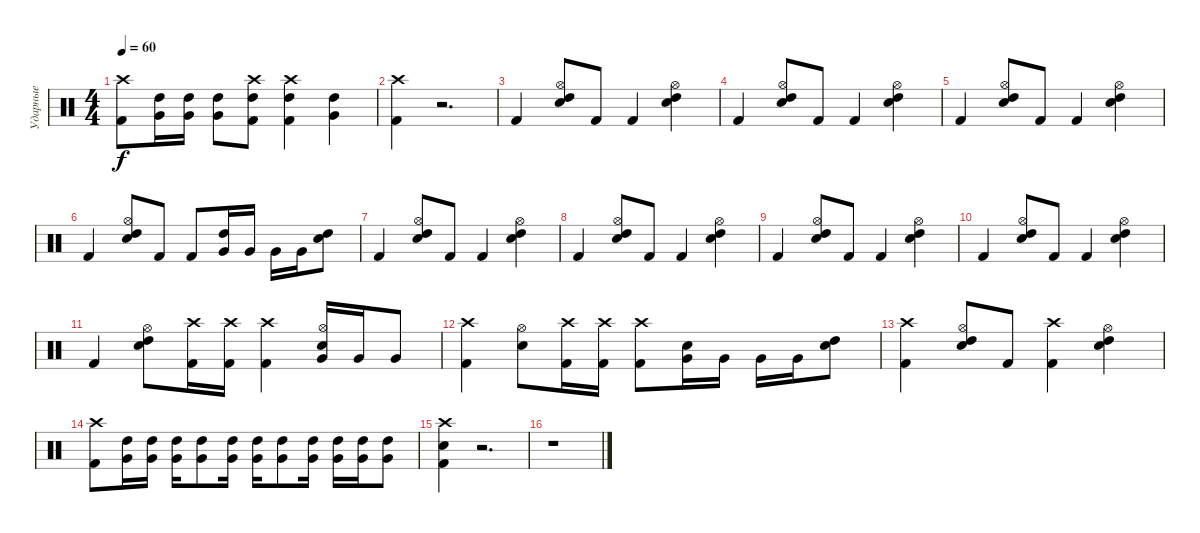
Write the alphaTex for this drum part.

\track ("Ударные" "Ударные") {instrument percussion}
\staff
\articulation defaults
\ts (4 4)
\tempo 60
\clef neutral
\ks c
("Crash high (hit)" "Kick (hit) 2").8{dy f} ("High Tom (hit)" "Very Low Tom (hit)").16 ("High Tom (hit)" "Very Low Tom (hit)").16 ("High Tom (hit)" "Very Low Tom (hit)").8 ("Crash high (hit)" "High Tom (hit)" "Kick (hit) 2").8 ("Crash high (hit)" "High Tom (hit)" "Kick (hit) 2").4 ("High Tom (hit)" "Very Low Tom (hit)").4 |
("Crash high (hit)" "Kick (hit) 2").4 r.2{d} |
"Kick (hit) 2".4 ("Hi-Hat (open)" "High Tom (hit)" "Snare (hit) 2").8 "Kick (hit) 2".8 "Kick (hit) 2".4 ("Hi-Hat (open)" "High Tom (hit)" "Snare (hit) 2").4 |
"Kick (hit) 2".4 ("Hi-Hat (open)" "High Tom (hit)" "Snare (hit) 2").8 "Kick (hit) 2".8 "Kick (hit) 2".4 ("Hi-Hat (open)" "High Tom (hit)" "Snare (hit) 2").4 |
"Kick (hit) 2".4 ("Hi-Hat (open)" "High Tom (hit)" "Snare (hit) 2").8 "Kick (hit) 2".8 "Kick (hit) 2".4 ("Hi-Hat (open)" "High Tom (hit)" "Snare (hit) 2").4 |
"Kick (hit) 2".4 ("Hi-Hat (open)" "High Tom (hit)" "Snare (hit) 2").8 "Kick (hit) 2".8 "Kick (hit) 2".8 ("High Tom (hit)" "Very Low Tom (hit)").16 "Very Low Tom (hit)".16 "Very Low Tom (hit)".16 "Very Low Tom (hit)".16 ("High Tom (hit)" "Snare (hit) 2").8 |
"Kick (hit) 2".4 ("Hi-Hat (open)" "High Tom (hit)" "Snare (hit) 2").8 "Kick (hit) 2".8 "Kick (hit) 2".4 ("Hi-Hat (open)" "High Tom (hit)" "Snare (hit) 2").4 |
"Kick (hit) 2".4 ("Hi-Hat (open)" "High Tom (hit)" "Snare (hit) 2").8 "Kick (hit) 2".8 "Kick (hit) 2".4 ("Hi-Hat (open)" "High Tom (hit)" "Snare (hit) 2").4 |
"Kick (hit) 2".4 ("Hi-Hat (open)" "High Tom (hit)" "Snare (hit) 2").8 "Kick (hit) 2".8 "Kick (hit) 2".4 ("Hi-Hat (open)" "High Tom (hit)" "Snare (hit) 2").4 |
"Kick (hit) 2".4 ("Hi-Hat (open)" "High Tom (hit)" "Snare (hit) 2").8 "Kick (hit) 2".8 "Kick (hit) 2".4 ("Hi-Hat (open)" "High Tom (hit)" "Snare (hit) 2").4 |
"Kick (hit) 2".4 ("Hi-Hat (open)" "Snare (hit) 2" "High Tom (hit)").8 ("Crash high (hit)" "Kick (hit) 2").16 ("Crash high (hit)" "Kick (hit) 2").16 ("Crash high (hit)" "Kick (hit) 2").4 ("Hi-Hat (open)" "Snare (hit) 2" "Very Low Tom (hit)").16 "Very Low Tom (hit)".16 "Very Low Tom (hit)".8 |
("Crash high (hit)" "Kick (hit) 2").4 ("Hi-Hat (open)" "Snare (hit) 2").8 ("Crash high (hit)" "Kick (hit) 2").16 ("Crash high (hit)" "Kick (hit) 2").16 ("Crash high (hit)" "Kick (hit) 2").8 ("Snare (hit) 2" "Very Low Tom (hit)").16 "Very Low Tom (hit)".16 "Very Low Tom (hit)".16 "Very Low Tom (hit)".16 ("High Tom (hit)" "Snare (hit) 2").8 |
("Crash high (hit)" "Kick (hit) 2").4 ("Hi-Hat (open)" "High Tom (hit)" "Snare (hit) 2").8 "Kick (hit) 2".8 ("Crash high (hit)" "Kick (hit) 2").4 ("Hi-Hat (open)" "High Tom (hit)" "Snare (hit) 2").4 |
("Crash high (hit)" "Kick (hit) 2").8 ("High Tom (hit)" "Very Low Tom (hit)").16 ("High Tom (hit)" "Very Low Tom (hit)").16 ("High Tom (hit)" "Very Low Tom (hit)").16 ("High Tom (hit)" "Very Low Tom (hit)").8 ("High Tom (hit)" "Very Low Tom (hit)").16 ("High Tom (hit)" "Very Low Tom (hit)").16 ("High Tom (hit)" "Very Low Tom (hit)").8 ("High Tom (hit)" "Very Low Tom (hit)").16 ("High Tom (hit)" "Very Low Tom (hit)").16 ("High Tom (hit)" "Very Low Tom (hit)").16 ("High Tom (hit)" "Very Low Tom (hit)").8 |
("Crash high (hit)" "Snare (hit) 2" "Kick (hit) 2").4 r.2{d} |
r.1
